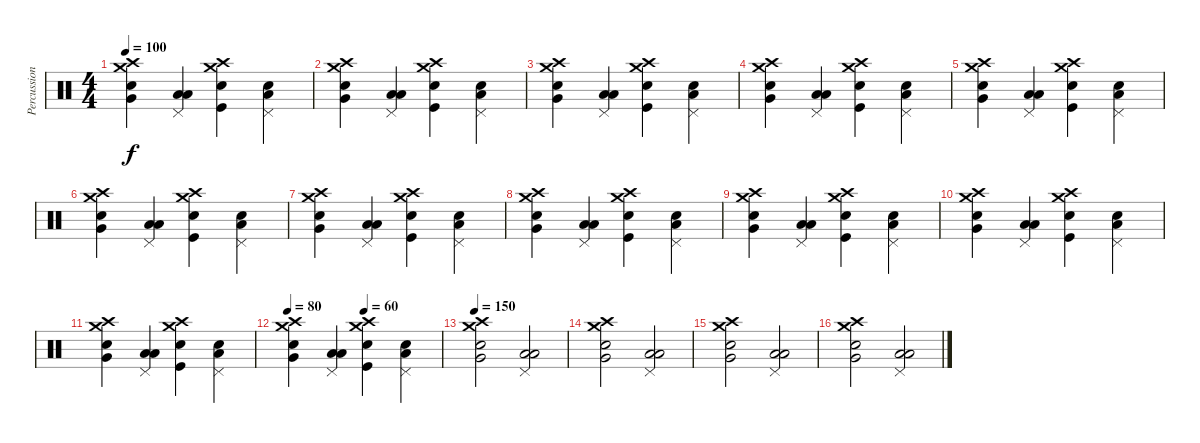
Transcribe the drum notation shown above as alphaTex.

\track ("Percussion" "Percussion") {instrument percussion}
\staff {score}
\articulation defaults
\ts (4 4)
\tempo 100
\clef neutral
\ks c
("Crash medium (hit)" "Crash high (hit)" "Electric Snare (hit)" "Very Low Tom (hit)").4{dy f} ("Pedal Hi-Hat (hit)" "Low Tom (hit)" "Low Floor Tom (hit)").4 ("Crash medium (hit)" "Crash high (hit)" "Electric Snare (hit)" "Kick (hit)").4 ("Pedal Hi-Hat (hit)" "Low Tom (hit)" "Electric Snare (hit)").4 |
("Crash medium (hit)" "Crash high (hit)" "Electric Snare (hit)" "Very Low Tom (hit)").4 ("Pedal Hi-Hat (hit)" "Low Tom (hit)" "Low Floor Tom (hit)").4 ("Crash medium (hit)" "Crash high (hit)" "Electric Snare (hit)" "Kick (hit)").4 ("Pedal Hi-Hat (hit)" "Low Tom (hit)" "Electric Snare (hit)").4 |
("Crash medium (hit)" "Crash high (hit)" "Electric Snare (hit)" "Very Low Tom (hit)").4 ("Pedal Hi-Hat (hit)" "Low Tom (hit)" "Low Floor Tom (hit)").4 ("Crash medium (hit)" "Crash high (hit)" "Electric Snare (hit)" "Kick (hit)").4 ("Pedal Hi-Hat (hit)" "Low Tom (hit)" "Electric Snare (hit)").4 |
("Crash medium (hit)" "Crash high (hit)" "Electric Snare (hit)" "Very Low Tom (hit)").4 ("Pedal Hi-Hat (hit)" "Low Tom (hit)" "Low Floor Tom (hit)").4 ("Crash medium (hit)" "Crash high (hit)" "Electric Snare (hit)" "Kick (hit)").4 ("Pedal Hi-Hat (hit)" "Low Tom (hit)" "Electric Snare (hit)").4 |
("Crash medium (hit)" "Crash high (hit)" "Electric Snare (hit)" "Very Low Tom (hit)").4 ("Pedal Hi-Hat (hit)" "Low Tom (hit)" "Low Floor Tom (hit)").4 ("Crash medium (hit)" "Crash high (hit)" "Electric Snare (hit)" "Kick (hit)").4 ("Pedal Hi-Hat (hit)" "Low Tom (hit)" "Electric Snare (hit)").4 |
("Crash medium (hit)" "Crash high (hit)" "Electric Snare (hit)" "Very Low Tom (hit)").4 ("Pedal Hi-Hat (hit)" "Low Tom (hit)" "Low Floor Tom (hit)").4 ("Crash medium (hit)" "Crash high (hit)" "Electric Snare (hit)" "Kick (hit)").4 ("Pedal Hi-Hat (hit)" "Low Tom (hit)" "Electric Snare (hit)").4 |
("Crash medium (hit)" "Crash high (hit)" "Electric Snare (hit)" "Very Low Tom (hit)").4 ("Pedal Hi-Hat (hit)" "Low Tom (hit)" "Low Floor Tom (hit)").4 ("Crash medium (hit)" "Crash high (hit)" "Electric Snare (hit)" "Kick (hit)").4 ("Pedal Hi-Hat (hit)" "Low Tom (hit)" "Electric Snare (hit)").4 |
("Crash medium (hit)" "Crash high (hit)" "Electric Snare (hit)" "Very Low Tom (hit)").4 ("Pedal Hi-Hat (hit)" "Low Tom (hit)" "Low Floor Tom (hit)").4 ("Crash medium (hit)" "Crash high (hit)" "Electric Snare (hit)" "Kick (hit)").4 ("Pedal Hi-Hat (hit)" "Low Tom (hit)" "Electric Snare (hit)").4 |
("Crash medium (hit)" "Crash high (hit)" "Electric Snare (hit)" "Very Low Tom (hit)").4 ("Pedal Hi-Hat (hit)" "Low Tom (hit)" "Low Floor Tom (hit)").4 ("Crash medium (hit)" "Crash high (hit)" "Electric Snare (hit)" "Kick (hit)").4 ("Pedal Hi-Hat (hit)" "Low Tom (hit)" "Electric Snare (hit)").4 |
("Crash medium (hit)" "Crash high (hit)" "Electric Snare (hit)" "Very Low Tom (hit)").4 ("Pedal Hi-Hat (hit)" "Low Tom (hit)" "Low Floor Tom (hit)").4 ("Crash medium (hit)" "Crash high (hit)" "Electric Snare (hit)" "Kick (hit)").4 ("Pedal Hi-Hat (hit)" "Low Tom (hit)" "Electric Snare (hit)").4 |
("Crash medium (hit)" "Crash high (hit)" "Electric Snare (hit)" "Very Low Tom (hit)").4 ("Pedal Hi-Hat (hit)" "Low Tom (hit)" "Low Floor Tom (hit)").4 ("Crash medium (hit)" "Crash high (hit)" "Electric Snare (hit)" "Kick (hit)").4 ("Pedal Hi-Hat (hit)" "Low Tom (hit)" "Electric Snare (hit)").4 |
\tempo 80
\tempo (60 0.5)
("Crash medium (hit)" "Crash high (hit)" "Electric Snare (hit)" "Very Low Tom (hit)").4 ("Pedal Hi-Hat (hit)" "Low Tom (hit)" "Low Floor Tom (hit)").4 ("Crash medium (hit)" "Crash high (hit)" "Electric Snare (hit)" "Kick (hit)").4 ("Pedal Hi-Hat (hit)" "Low Tom (hit)" "Electric Snare (hit)").4 |
\tempo 150
("Crash medium (hit)" "Crash high (hit)" "Electric Snare (hit)" "Very Low Tom (hit)").2 ("Pedal Hi-Hat (hit)" "Low Tom (hit)" "Low Floor Tom (hit)").2 |
("Crash medium (hit)" "Crash high (hit)" "Electric Snare (hit)" "Very Low Tom (hit)").2 ("Pedal Hi-Hat (hit)" "Low Tom (hit)" "Low Floor Tom (hit)").2 |
("Crash medium (hit)" "Crash high (hit)" "Electric Snare (hit)" "Very Low Tom (hit)").2 ("Pedal Hi-Hat (hit)" "Low Tom (hit)" "Low Floor Tom (hit)").2 |
("Crash medium (hit)" "Crash high (hit)" "Electric Snare (hit)" "Very Low Tom (hit)").2 ("Pedal Hi-Hat (hit)" "Low Tom (hit)" "Low Floor Tom (hit)").2
